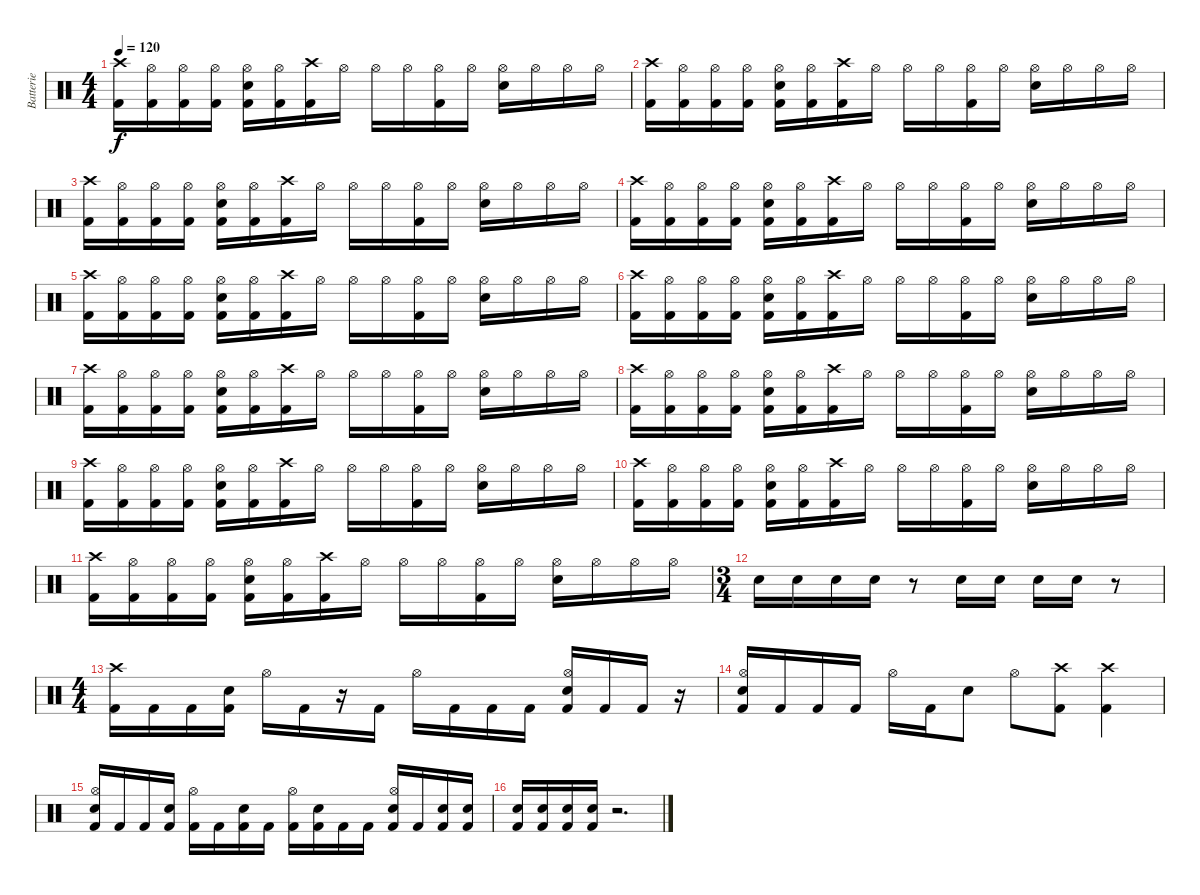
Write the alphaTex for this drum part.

\track ("Batterie" "Batterie") {instrument percussion}
\staff {score}
\articulation defaults
\ts (4 4)
\tempo 120
\clef neutral
\ks c
("Crash high (hit)" "Kick (hit) 2").16{dy f} ("Hi-Hat (open)" "Kick (hit) 2").16 ("Hi-Hat (open)" "Kick (hit) 2").16 ("Hi-Hat (open)" "Kick (hit) 2").16 ("Electric Snare (hit)" "Hi-Hat (open)" "Kick (hit) 2").16 ("Hi-Hat (open)" "Kick (hit) 2").16 ("Crash high (hit)" "Kick (hit) 2").16 "Hi-Hat (open)".16 "Hi-Hat (open)".16 "Hi-Hat (open)".16 ("Hi-Hat (open)" "Kick (hit) 2").16 "Hi-Hat (open)".16 ("Hi-Hat (open)" "Electric Snare (hit)").16 "Hi-Hat (open)".16 "Hi-Hat (open)".16 "Hi-Hat (open)".16 |
("Crash high (hit)" "Kick (hit) 2").16 ("Hi-Hat (open)" "Kick (hit) 2").16 ("Hi-Hat (open)" "Kick (hit) 2").16 ("Hi-Hat (open)" "Kick (hit) 2").16 ("Electric Snare (hit)" "Hi-Hat (open)" "Kick (hit) 2").16 ("Hi-Hat (open)" "Kick (hit) 2").16 ("Crash high (hit)" "Kick (hit) 2").16 "Hi-Hat (open)".16 "Hi-Hat (open)".16 "Hi-Hat (open)".16 ("Hi-Hat (open)" "Kick (hit) 2").16 "Hi-Hat (open)".16 ("Hi-Hat (open)" "Electric Snare (hit)").16 "Hi-Hat (open)".16 "Hi-Hat (open)".16 "Hi-Hat (open)".16 |
("Crash high (hit)" "Kick (hit) 2").16 ("Hi-Hat (open)" "Kick (hit) 2").16 ("Hi-Hat (open)" "Kick (hit) 2").16 ("Hi-Hat (open)" "Kick (hit) 2").16 ("Electric Snare (hit)" "Hi-Hat (open)" "Kick (hit) 2").16 ("Hi-Hat (open)" "Kick (hit) 2").16 ("Crash high (hit)" "Kick (hit) 2").16 "Hi-Hat (open)".16 "Hi-Hat (open)".16 "Hi-Hat (open)".16 ("Hi-Hat (open)" "Kick (hit) 2").16 "Hi-Hat (open)".16 ("Hi-Hat (open)" "Electric Snare (hit)").16 "Hi-Hat (open)".16 "Hi-Hat (open)".16 "Hi-Hat (open)".16 |
("Crash high (hit)" "Kick (hit) 2").16 ("Hi-Hat (open)" "Kick (hit) 2").16 ("Hi-Hat (open)" "Kick (hit) 2").16 ("Hi-Hat (open)" "Kick (hit) 2").16 ("Electric Snare (hit)" "Hi-Hat (open)" "Kick (hit) 2").16 ("Hi-Hat (open)" "Kick (hit) 2").16 ("Crash high (hit)" "Kick (hit) 2").16 "Hi-Hat (open)".16 "Hi-Hat (open)".16 "Hi-Hat (open)".16 ("Hi-Hat (open)" "Kick (hit) 2").16 "Hi-Hat (open)".16 ("Hi-Hat (open)" "Electric Snare (hit)").16 "Hi-Hat (open)".16 "Hi-Hat (open)".16 "Hi-Hat (open)".16 |
("Crash high (hit)" "Kick (hit) 2").16 ("Hi-Hat (open)" "Kick (hit) 2").16 ("Hi-Hat (open)" "Kick (hit) 2").16 ("Hi-Hat (open)" "Kick (hit) 2").16 ("Electric Snare (hit)" "Hi-Hat (open)" "Kick (hit) 2").16 ("Hi-Hat (open)" "Kick (hit) 2").16 ("Crash high (hit)" "Kick (hit) 2").16 "Hi-Hat (open)".16 "Hi-Hat (open)".16 "Hi-Hat (open)".16 ("Hi-Hat (open)" "Kick (hit) 2").16 "Hi-Hat (open)".16 ("Hi-Hat (open)" "Electric Snare (hit)").16 "Hi-Hat (open)".16 "Hi-Hat (open)".16 "Hi-Hat (open)".16 |
("Crash high (hit)" "Kick (hit) 2").16 ("Hi-Hat (open)" "Kick (hit) 2").16 ("Hi-Hat (open)" "Kick (hit) 2").16 ("Hi-Hat (open)" "Kick (hit) 2").16 ("Electric Snare (hit)" "Hi-Hat (open)" "Kick (hit) 2").16 ("Hi-Hat (open)" "Kick (hit) 2").16 ("Crash high (hit)" "Kick (hit) 2").16 "Hi-Hat (open)".16 "Hi-Hat (open)".16 "Hi-Hat (open)".16 ("Hi-Hat (open)" "Kick (hit) 2").16 "Hi-Hat (open)".16 ("Hi-Hat (open)" "Electric Snare (hit)").16 "Hi-Hat (open)".16 "Hi-Hat (open)".16 "Hi-Hat (open)".16 |
("Crash high (hit)" "Kick (hit) 2").16 ("Hi-Hat (open)" "Kick (hit) 2").16 ("Hi-Hat (open)" "Kick (hit) 2").16 ("Hi-Hat (open)" "Kick (hit) 2").16 ("Electric Snare (hit)" "Hi-Hat (open)" "Kick (hit) 2").16 ("Hi-Hat (open)" "Kick (hit) 2").16 ("Crash high (hit)" "Kick (hit) 2").16 "Hi-Hat (open)".16 "Hi-Hat (open)".16 "Hi-Hat (open)".16 ("Hi-Hat (open)" "Kick (hit) 2").16 "Hi-Hat (open)".16 ("Hi-Hat (open)" "Electric Snare (hit)").16 "Hi-Hat (open)".16 "Hi-Hat (open)".16 "Hi-Hat (open)".16 |
("Crash high (hit)" "Kick (hit) 2").16 ("Hi-Hat (open)" "Kick (hit) 2").16 ("Hi-Hat (open)" "Kick (hit) 2").16 ("Hi-Hat (open)" "Kick (hit) 2").16 ("Electric Snare (hit)" "Hi-Hat (open)" "Kick (hit) 2").16 ("Hi-Hat (open)" "Kick (hit) 2").16 ("Crash high (hit)" "Kick (hit) 2").16 "Hi-Hat (open)".16 "Hi-Hat (open)".16 "Hi-Hat (open)".16 ("Hi-Hat (open)" "Kick (hit) 2").16 "Hi-Hat (open)".16 ("Hi-Hat (open)" "Electric Snare (hit)").16 "Hi-Hat (open)".16 "Hi-Hat (open)".16 "Hi-Hat (open)".16 |
("Crash high (hit)" "Kick (hit) 2").16 ("Hi-Hat (open)" "Kick (hit) 2").16 ("Hi-Hat (open)" "Kick (hit) 2").16 ("Hi-Hat (open)" "Kick (hit) 2").16 ("Electric Snare (hit)" "Hi-Hat (open)" "Kick (hit) 2").16 ("Hi-Hat (open)" "Kick (hit) 2").16 ("Crash high (hit)" "Kick (hit) 2").16 "Hi-Hat (open)".16 "Hi-Hat (open)".16 "Hi-Hat (open)".16 ("Hi-Hat (open)" "Kick (hit) 2").16 "Hi-Hat (open)".16 ("Hi-Hat (open)" "Electric Snare (hit)").16 "Hi-Hat (open)".16 "Hi-Hat (open)".16 "Hi-Hat (open)".16 |
("Crash high (hit)" "Kick (hit) 2").16 ("Hi-Hat (open)" "Kick (hit) 2").16 ("Hi-Hat (open)" "Kick (hit) 2").16 ("Hi-Hat (open)" "Kick (hit) 2").16 ("Electric Snare (hit)" "Hi-Hat (open)" "Kick (hit) 2").16 ("Hi-Hat (open)" "Kick (hit) 2").16 ("Crash high (hit)" "Kick (hit) 2").16 "Hi-Hat (open)".16 "Hi-Hat (open)".16 "Hi-Hat (open)".16 ("Hi-Hat (open)" "Kick (hit) 2").16 "Hi-Hat (open)".16 ("Hi-Hat (open)" "Electric Snare (hit)").16 "Hi-Hat (open)".16 "Hi-Hat (open)".16 "Hi-Hat (open)".16 |
("Crash high (hit)" "Kick (hit) 2").16 ("Hi-Hat (open)" "Kick (hit) 2").16 ("Hi-Hat (open)" "Kick (hit) 2").16 ("Hi-Hat (open)" "Kick (hit) 2").16 ("Electric Snare (hit)" "Hi-Hat (open)" "Kick (hit) 2").16 ("Hi-Hat (open)" "Kick (hit) 2").16 ("Crash high (hit)" "Kick (hit) 2").16 "Hi-Hat (open)".16 "Hi-Hat (open)".16 "Hi-Hat (open)".16 ("Hi-Hat (open)" "Kick (hit) 2").16 "Hi-Hat (open)".16 ("Hi-Hat (open)" "Electric Snare (hit)").16 "Hi-Hat (open)".16 "Hi-Hat (open)".16 "Hi-Hat (open)".16 |
\ts (3 4)
"Electric Snare (hit)".16 "Electric Snare (hit)".16 "Electric Snare (hit)".16 "Electric Snare (hit)".16 r.8 "Electric Snare (hit)".16 "Electric Snare (hit)".16 "Electric Snare (hit)".16 "Electric Snare (hit)".16 r.8 |
\ts (4 4)
("Kick (hit) 2" "Crash high (hit)").16 "Kick (hit) 2".16 "Kick (hit) 2".16 ("Kick (hit) 2" "Electric Snare (hit)").16 "Hi-Hat (open)".16 "Kick (hit) 2".16 r.16 "Kick (hit) 2".16 "Hi-Hat (open)".16 "Kick (hit) 2".16 "Kick (hit) 2".16 "Kick (hit) 2".16 ("Hi-Hat (open)" "Electric Snare (hit)" "Kick (hit) 2").16 "Kick (hit) 2".16 "Kick (hit) 2".16 r.16 |
("Electric Snare (hit)" "Kick (hit) 2" "Hi-Hat (open)").16 "Kick (hit) 2".16 "Kick (hit) 2".16 "Kick (hit) 2".16 "Hi-Hat (open)".16 "Kick (hit) 2".16 "Electric Snare (hit)".8 "Hi-Hat (open)".8 ("Crash high (hit)" "Kick (hit) 2").8 ("Crash high (hit)" "Kick (hit) 2").4 |
("Hi-Hat (open)" "Electric Snare (hit)" "Kick (hit) 2").16 "Kick (hit) 2".16 "Kick (hit) 2".16 ("Electric Snare (hit)" "Kick (hit) 2").16 ("Hi-Hat (open)" "Kick (hit) 2").16 "Kick (hit) 2".16 ("Electric Snare (hit)" "Kick (hit) 2").16 "Kick (hit) 2".16 ("Hi-Hat (open)" "Kick (hit) 2").16 ("Electric Snare (hit)" "Kick (hit) 2").16 "Kick (hit) 2".16 "Kick (hit) 2".16 ("Hi-Hat (open)" "Electric Snare (hit)" "Kick (hit) 2").16 "Kick (hit) 2".16 ("Electric Snare (hit)" "Kick (hit) 2").16 ("Electric Snare (hit)" "Kick (hit) 2").16 |
("Electric Snare (hit)" "Kick (hit) 2").16 ("Electric Snare (hit)" "Kick (hit) 2").16 ("Electric Snare (hit)" "Kick (hit) 2").16 ("Electric Snare (hit)" "Kick (hit) 2").16 r.2{d}
